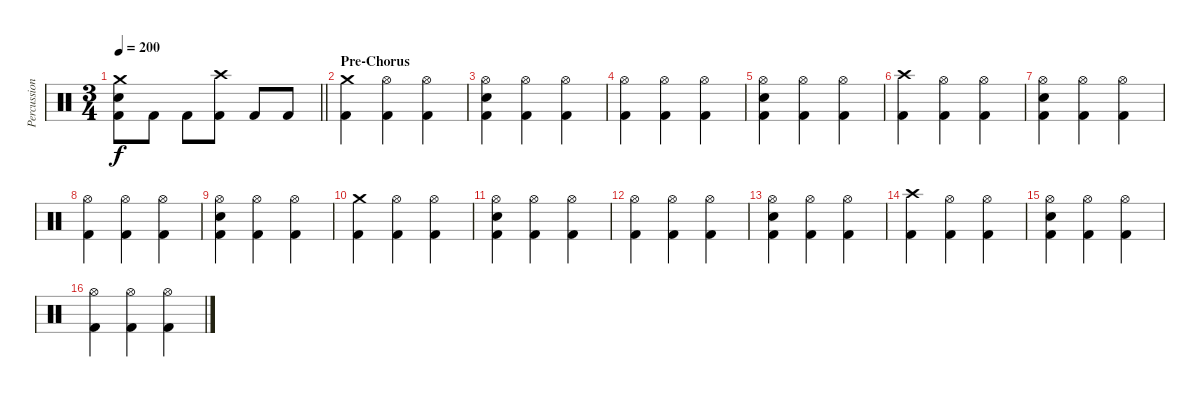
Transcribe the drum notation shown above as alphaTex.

\track ("Percussion" "Percussion") {instrument percussion}
\staff {score}
\articulation defaults
\ts (3 4)
\tempo 200
\clef neutral
\barLineRight lightlight
\ks c
("Crash medium (hit)" "Electric Snare (hit)" "Kick (hit) 2").8{dy f} "Kick (hit) 2".8 "Kick (hit) 2".8 ("Crash high (hit)" "Kick (hit) 2").8 "Kick (hit) 2".8 "Kick (hit) 2".8 |
\section ("" "Pre-Chorus")
("Crash medium (hit)" "Kick (hit) 2").4 ("Hi-Hat (open)" "Kick (hit) 2").4 ("Hi-Hat (open)" "Kick (hit) 2").4 |
("Hi-Hat (open)" "Electric Snare (hit)" "Kick (hit) 2").4 ("Hi-Hat (open)" "Kick (hit) 2").4 ("Hi-Hat (open)" "Kick (hit) 2").4 |
("Hi-Hat (open)" "Kick (hit) 2").4 ("Hi-Hat (open)" "Kick (hit) 2").4 ("Hi-Hat (open)" "Kick (hit) 2").4 |
("Hi-Hat (open)" "Electric Snare (hit)" "Kick (hit) 2").4 ("Hi-Hat (open)" "Kick (hit) 2").4 ("Hi-Hat (open)" "Kick (hit) 2").4 |
("Crash high (hit)" "Kick (hit) 2").4 ("Hi-Hat (open)" "Kick (hit) 2").4 ("Hi-Hat (open)" "Kick (hit) 2").4 |
("Hi-Hat (open)" "Electric Snare (hit)" "Kick (hit) 2").4 ("Hi-Hat (open)" "Kick (hit) 2").4 ("Hi-Hat (open)" "Kick (hit) 2").4 |
("Hi-Hat (open)" "Kick (hit) 2").4 ("Hi-Hat (open)" "Kick (hit) 2").4 ("Hi-Hat (open)" "Kick (hit) 2").4 |
("Hi-Hat (open)" "Electric Snare (hit)" "Kick (hit) 2").4 ("Hi-Hat (open)" "Kick (hit) 2").4 ("Hi-Hat (open)" "Kick (hit) 2").4 |
("Crash medium (hit)" "Kick (hit) 2").4 ("Hi-Hat (open)" "Kick (hit) 2").4 ("Hi-Hat (open)" "Kick (hit) 2").4 |
("Hi-Hat (open)" "Electric Snare (hit)" "Kick (hit) 2").4 ("Hi-Hat (open)" "Kick (hit) 2").4 ("Hi-Hat (open)" "Kick (hit) 2").4 |
("Hi-Hat (open)" "Kick (hit) 2").4 ("Hi-Hat (open)" "Kick (hit) 2").4 ("Hi-Hat (open)" "Kick (hit) 2").4 |
("Hi-Hat (open)" "Electric Snare (hit)" "Kick (hit) 2").4 ("Hi-Hat (open)" "Kick (hit) 2").4 ("Hi-Hat (open)" "Kick (hit) 2").4 |
("Crash high (hit)" "Kick (hit) 2").4 ("Hi-Hat (open)" "Kick (hit) 2").4 ("Hi-Hat (open)" "Kick (hit) 2").4 |
("Hi-Hat (open)" "Electric Snare (hit)" "Kick (hit) 2").4 ("Hi-Hat (open)" "Kick (hit) 2").4 ("Hi-Hat (open)" "Kick (hit) 2").4 |
("Hi-Hat (open)" "Kick (hit) 2").4 ("Hi-Hat (open)" "Kick (hit) 2").4 ("Hi-Hat (open)" "Kick (hit) 2").4
